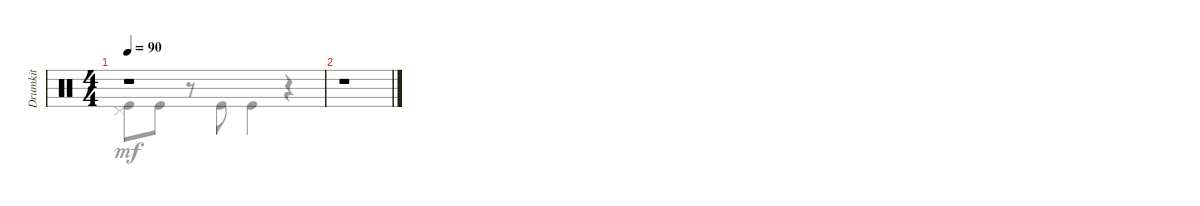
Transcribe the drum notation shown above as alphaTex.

\track ("Drumkit" "Drumkit") {instrument percussion}
\staff {score}
\articulation defaults
\voice
\ts (4 4)
\tempo 90
\clef neutral
\ks c
r.1{dy mf} |
r.1
\voice
\clef neutral
\ottava regular
\simile none
\ks c
("Pedal Hi-Hat (hit)" "Kick (hit)").8{dy mf} "Kick (hit)".8 r.8 "Kick (hit)".8 "Kick (hit)".4 r.4 |
